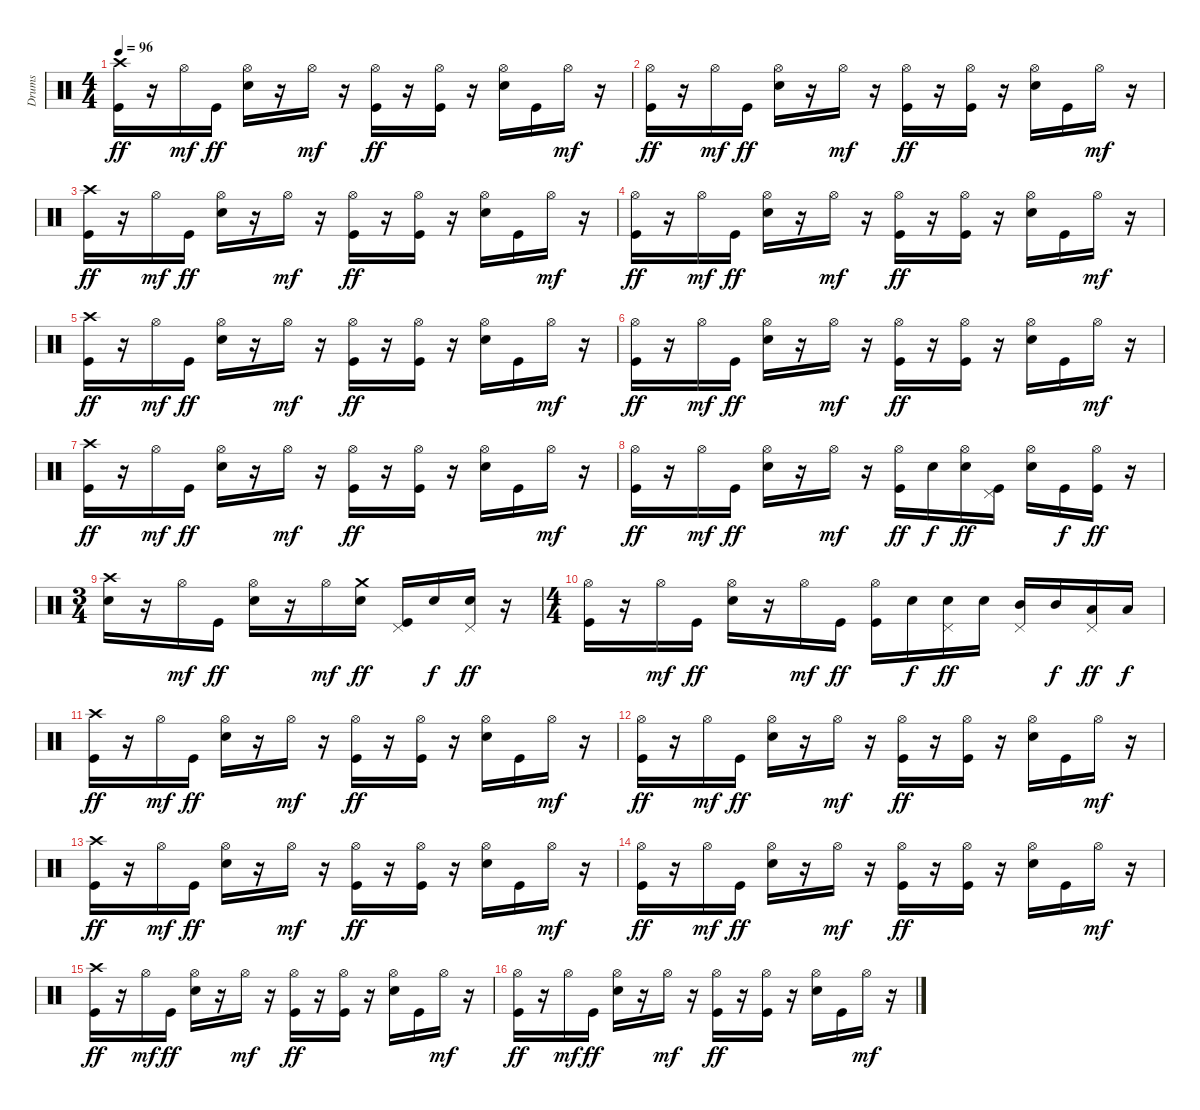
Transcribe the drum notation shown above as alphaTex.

\track ("Drums" "Drums") {instrument percussion}
\staff {score}
\articulation defaults
\ts (4 4)
\tempo 96
\clef neutral
\ks c
("Crash high (hit)" "Kick (hit)").16{dy ff} r.16 "Hi-Hat (open)".16{dy mf} "Kick (hit)".16{dy ff} ("Hi-Hat (open)" "Snare (hit) 2").16 r.16 "Hi-Hat (open)".16{dy mf} r.16 ("Hi-Hat (open)" "Kick (hit)").16{dy ff} r.16 ("Hi-Hat (open)" "Kick (hit)").16 r.16 ("Hi-Hat (open)" "Snare (hit) 2").16 "Kick (hit)".16 "Hi-Hat (open)".16{dy mf} r.16 |
("Hi-Hat (open)" "Kick (hit)").16{dy ff} r.16 "Hi-Hat (open)".16{dy mf} "Kick (hit)".16{dy ff} ("Hi-Hat (open)" "Snare (hit) 2").16 r.16 "Hi-Hat (open)".16{dy mf} r.16 ("Hi-Hat (open)" "Kick (hit)").16{dy ff} r.16 ("Hi-Hat (open)" "Kick (hit)").16 r.16 ("Hi-Hat (open)" "Snare (hit) 2").16 "Kick (hit)".16 "Hi-Hat (open)".16{dy mf} r.16 |
("Crash high (hit)" "Kick (hit)").16{dy ff} r.16 "Hi-Hat (open)".16{dy mf} "Kick (hit)".16{dy ff} ("Hi-Hat (open)" "Snare (hit) 2").16 r.16 "Hi-Hat (open)".16{dy mf} r.16 ("Hi-Hat (open)" "Kick (hit)").16{dy ff} r.16 ("Hi-Hat (open)" "Kick (hit)").16 r.16 ("Hi-Hat (open)" "Snare (hit) 2").16 "Kick (hit)".16 "Hi-Hat (open)".16{dy mf} r.16 |
("Hi-Hat (open)" "Kick (hit)").16{dy ff} r.16 "Hi-Hat (open)".16{dy mf} "Kick (hit)".16{dy ff} ("Hi-Hat (open)" "Snare (hit) 2").16 r.16 "Hi-Hat (open)".16{dy mf} r.16 ("Hi-Hat (open)" "Kick (hit)").16{dy ff} r.16 ("Hi-Hat (open)" "Kick (hit)").16 r.16 ("Hi-Hat (open)" "Snare (hit) 2").16 "Kick (hit)".16 "Hi-Hat (open)".16{dy mf} r.16 |
("Crash high (hit)" "Kick (hit)").16{dy ff} r.16 "Hi-Hat (open)".16{dy mf} "Kick (hit)".16{dy ff} ("Hi-Hat (open)" "Snare (hit) 2").16 r.16 "Hi-Hat (open)".16{dy mf} r.16 ("Hi-Hat (open)" "Kick (hit)").16{dy ff} r.16 ("Hi-Hat (open)" "Kick (hit)").16 r.16 ("Hi-Hat (open)" "Snare (hit) 2").16 "Kick (hit)".16 "Hi-Hat (open)".16{dy mf} r.16 |
("Hi-Hat (open)" "Kick (hit)").16{dy ff} r.16 "Hi-Hat (open)".16{dy mf} "Kick (hit)".16{dy ff} ("Hi-Hat (open)" "Snare (hit) 2").16 r.16 "Hi-Hat (open)".16{dy mf} r.16 ("Hi-Hat (open)" "Kick (hit)").16{dy ff} r.16 ("Hi-Hat (open)" "Kick (hit)").16 r.16 ("Hi-Hat (open)" "Snare (hit) 2").16 "Kick (hit)".16 "Hi-Hat (open)".16{dy mf} r.16 |
("Crash high (hit)" "Kick (hit)").16{dy ff} r.16 "Hi-Hat (open)".16{dy mf} "Kick (hit)".16{dy ff} ("Hi-Hat (open)" "Snare (hit) 2").16 r.16 "Hi-Hat (open)".16{dy mf} r.16 ("Hi-Hat (open)" "Kick (hit)").16{dy ff} r.16 ("Hi-Hat (open)" "Kick (hit)").16 r.16 ("Hi-Hat (open)" "Snare (hit) 2").16 "Kick (hit)".16 "Hi-Hat (open)".16{dy mf} r.16 |
("Hi-Hat (open)" "Kick (hit)").16{dy ff} r.16 "Hi-Hat (open)".16{dy mf} "Kick (hit)".16{dy ff} ("Hi-Hat (open)" "Snare (hit) 2").16 r.16 "Hi-Hat (open)".16{dy mf} r.16 ("Hi-Hat (open)" "Kick (hit)").16{dy ff} "Snare (hit) 2".16{dy f} ("Hi-Hat (open)" "Snare (hit) 2").16{dy ff} ("Pedal Hi-Hat (hit)" "Kick (hit)").16 ("Hi-Hat (open)" "Snare (hit) 2").16 "Kick (hit)".16{dy f} ("Hi-Hat (open)" "Kick (hit)").16{dy ff} r.16 |
\ts (3 4)
("Crash high (hit)" "Snare (hit) 2").16 r.16 "Hi-Hat (open)".16{dy mf} "Kick (hit)".16{dy ff} ("Hi-Hat (open)" "Snare (hit) 2").16 r.16 "Hi-Hat (open)".16{dy mf} ("Crash medium (hit)" "Snare (hit) 2").16{dy ff} ("Pedal Hi-Hat (hit)" "Kick (hit)").16 "Snare (hit) 2".16{dy f} ("Pedal Hi-Hat (hit)" "Snare (hit) 2").16{dy ff} r.16 |
\ts (4 4)
("Hi-Hat (open)" "Kick (hit)").16 r.16 "Hi-Hat (open)".16{dy mf} "Kick (hit)".16{dy ff} ("Hi-Hat (open)" "Snare (hit) 2").16 r.16 "Hi-Hat (open)".16{dy mf} "Kick (hit)".16{dy ff} ("Hi-Hat (open)" "Kick (hit)").16 "Snare (hit) 2".16{dy f} ("Pedal Hi-Hat (hit)" "Snare (hit) 2").16{dy ff} "Snare (hit) 2".16 ("Pedal Hi-Hat (hit)" "Mid Tom (hit)").16 "Mid Tom (hit)".16{dy f} ("Pedal Hi-Hat (hit)" "Low Tom (hit)").16{dy ff} "Low Tom (hit)".16{dy f} |
("Crash high (hit)" "Kick (hit)").16{dy ff} r.16 "Hi-Hat (open)".16{dy mf} "Kick (hit)".16{dy ff} ("Hi-Hat (open)" "Snare (hit) 2").16 r.16 "Hi-Hat (open)".16{dy mf} r.16 ("Hi-Hat (open)" "Kick (hit)").16{dy ff} r.16 ("Hi-Hat (open)" "Kick (hit)").16 r.16 ("Hi-Hat (open)" "Snare (hit) 2").16 "Kick (hit)".16 "Hi-Hat (open)".16{dy mf} r.16 |
("Hi-Hat (open)" "Kick (hit)").16{dy ff} r.16 "Hi-Hat (open)".16{dy mf} "Kick (hit)".16{dy ff} ("Hi-Hat (open)" "Snare (hit) 2").16 r.16 "Hi-Hat (open)".16{dy mf} r.16 ("Hi-Hat (open)" "Kick (hit)").16{dy ff} r.16 ("Hi-Hat (open)" "Kick (hit)").16 r.16 ("Hi-Hat (open)" "Snare (hit) 2").16 "Kick (hit)".16 "Hi-Hat (open)".16{dy mf} r.16 |
("Crash high (hit)" "Kick (hit)").16{dy ff} r.16 "Hi-Hat (open)".16{dy mf} "Kick (hit)".16{dy ff} ("Hi-Hat (open)" "Snare (hit) 2").16 r.16 "Hi-Hat (open)".16{dy mf} r.16 ("Hi-Hat (open)" "Kick (hit)").16{dy ff} r.16 ("Hi-Hat (open)" "Kick (hit)").16 r.16 ("Hi-Hat (open)" "Snare (hit) 2").16 "Kick (hit)".16 "Hi-Hat (open)".16{dy mf} r.16 |
("Hi-Hat (open)" "Kick (hit)").16{dy ff} r.16 "Hi-Hat (open)".16{dy mf} "Kick (hit)".16{dy ff} ("Hi-Hat (open)" "Snare (hit) 2").16 r.16 "Hi-Hat (open)".16{dy mf} r.16 ("Hi-Hat (open)" "Kick (hit)").16{dy ff} r.16 ("Hi-Hat (open)" "Kick (hit)").16 r.16 ("Hi-Hat (open)" "Snare (hit) 2").16 "Kick (hit)".16 "Hi-Hat (open)".16{dy mf} r.16 |
("Crash high (hit)" "Kick (hit)").16{dy ff} r.16 "Hi-Hat (open)".16{dy mf} "Kick (hit)".16{dy ff} ("Hi-Hat (open)" "Snare (hit) 2").16 r.16 "Hi-Hat (open)".16{dy mf} r.16 ("Hi-Hat (open)" "Kick (hit)").16{dy ff} r.16 ("Hi-Hat (open)" "Kick (hit)").16 r.16 ("Hi-Hat (open)" "Snare (hit) 2").16 "Kick (hit)".16 "Hi-Hat (open)".16{dy mf} r.16 |
("Hi-Hat (open)" "Kick (hit)").16{dy ff} r.16 "Hi-Hat (open)".16{dy mf} "Kick (hit)".16{dy ff} ("Hi-Hat (open)" "Snare (hit) 2").16 r.16 "Hi-Hat (open)".16{dy mf} r.16 ("Hi-Hat (open)" "Kick (hit)").16{dy ff} r.16 ("Hi-Hat (open)" "Kick (hit)").16 r.16 ("Hi-Hat (open)" "Snare (hit) 2").16 "Kick (hit)".16 "Hi-Hat (open)".16{dy mf} r.16
